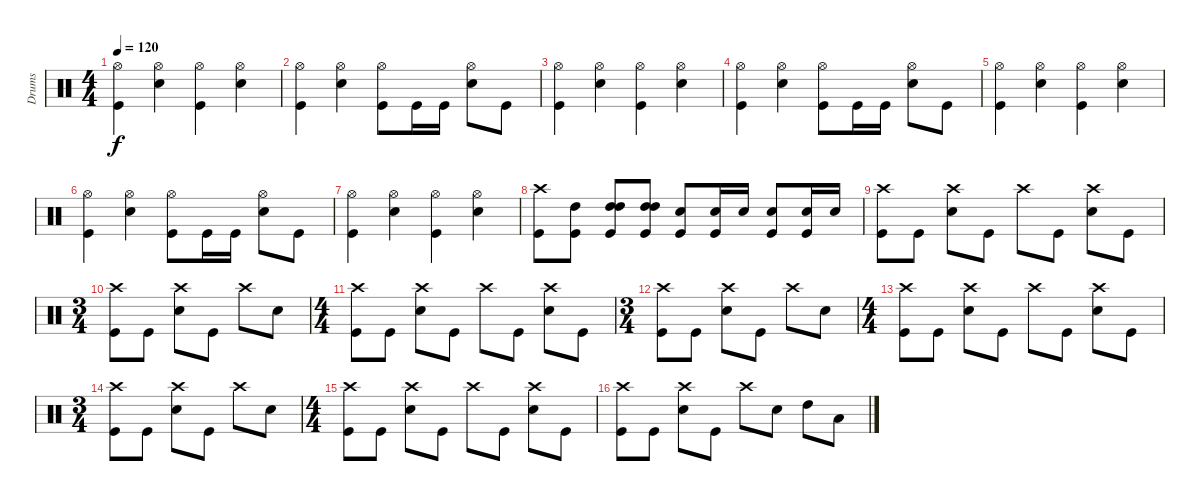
\track ("Drums" "Drums") {instrument percussion}
\staff {score}
\articulation defaults
\ts (4 4)
\tempo 120
\clef neutral
\ks c
("Kick (hit)" "Hi-Hat (open)").4{dy f} ("Snare (hit) 2" "Hi-Hat (open)").4 ("Kick (hit)" "Hi-Hat (open)").4 ("Snare (hit) 2" "Hi-Hat (open)").4 |
("Kick (hit)" "Hi-Hat (open)").4 ("Snare (hit) 2" "Hi-Hat (open)").4 ("Kick (hit)" "Hi-Hat (open)").8 "Kick (hit)".16 "Kick (hit)".16 ("Snare (hit) 2" "Hi-Hat (open)").8 "Kick (hit)".8 |
("Kick (hit)" "Hi-Hat (open)").4 ("Snare (hit) 2" "Hi-Hat (open)").4 ("Kick (hit)" "Hi-Hat (open)").4 ("Snare (hit) 2" "Hi-Hat (open)").4 |
("Kick (hit)" "Hi-Hat (open)").4 ("Snare (hit) 2" "Hi-Hat (open)").4 ("Kick (hit)" "Hi-Hat (open)").8 "Kick (hit)".16 "Kick (hit)".16 ("Snare (hit) 2" "Hi-Hat (open)").8 "Kick (hit)".8 |
("Kick (hit)" "Hi-Hat (open)").4 ("Snare (hit) 2" "Hi-Hat (open)").4 ("Kick (hit)" "Hi-Hat (open)").4 ("Snare (hit) 2" "Hi-Hat (open)").4 |
("Kick (hit)" "Hi-Hat (open)").4 ("Snare (hit) 2" "Hi-Hat (open)").4 ("Kick (hit)" "Hi-Hat (open)").8 "Kick (hit)".16 "Kick (hit)".16 ("Snare (hit) 2" "Hi-Hat (open)").8 "Kick (hit)".8 |
("Kick (hit)" "Hi-Hat (open)").4 ("Snare (hit) 2" "Hi-Hat (open)").4 ("Kick (hit)" "Hi-Hat (open)").4 ("Snare (hit) 2" "Hi-Hat (open)").4 |
("Kick (hit)" "Crash high (hit)").8 ("Kick (hit)" "High Tom (hit)").8 ("Kick (hit)" "High Tom (hit)" "High Tom (hit)").8 ("Kick (hit)" "High Tom (hit)" "High Tom (hit)").8 ("Kick (hit)" "Snare (hit) 2").8 ("Kick (hit)" "Snare (hit) 2").16 "Snare (hit) 2".16 ("Kick (hit)" "Snare (hit) 2").8 ("Kick (hit)" "Snare (hit) 2").16 "Snare (hit) 2".16 |
("Kick (hit)" "Crash high (hit)").8 "Kick (hit)".8 ("Snare (hit) 2" "Crash high (hit)").8 "Kick (hit)".8 "Crash high (hit)".8 "Kick (hit)".8 ("Snare (hit) 2" "Crash high (hit)").8 "Kick (hit)".8 |
\ts (3 4)
("Kick (hit)" "Crash high (hit)").8 "Kick (hit)".8 ("Snare (hit) 2" "Crash high (hit)").8 "Kick (hit)".8 "Crash high (hit)".8 "Snare (hit) 2".8 |
\ts (4 4)
("Kick (hit)" "Crash high (hit)").8 "Kick (hit)".8 ("Snare (hit) 2" "Crash high (hit)").8 "Kick (hit)".8 "Crash high (hit)".8 "Kick (hit)".8 ("Snare (hit) 2" "Crash high (hit)").8 "Kick (hit)".8 |
\ts (3 4)
("Kick (hit)" "Crash high (hit)").8 "Kick (hit)".8 ("Snare (hit) 2" "Crash high (hit)").8 "Kick (hit)".8 "Crash high (hit)".8 "Snare (hit) 2".8 |
\ts (4 4)
("Kick (hit)" "Crash high (hit)").8 "Kick (hit)".8 ("Snare (hit) 2" "Crash high (hit)").8 "Kick (hit)".8 "Crash high (hit)".8 "Kick (hit)".8 ("Snare (hit) 2" "Crash high (hit)").8 "Kick (hit)".8 |
\ts (3 4)
("Kick (hit)" "Crash high (hit)").8 "Kick (hit)".8 ("Snare (hit) 2" "Crash high (hit)").8 "Kick (hit)".8 "Crash high (hit)".8 "Snare (hit) 2".8 |
\ts (4 4)
("Kick (hit)" "Crash high (hit)").8 "Kick (hit)".8 ("Snare (hit) 2" "Crash high (hit)").8 "Kick (hit)".8 "Crash high (hit)".8 "Kick (hit)".8 ("Snare (hit) 2" "Crash high (hit)").8 "Kick (hit)".8 |
("Kick (hit)" "Crash high (hit)").8 "Kick (hit)".8 ("Snare (hit) 2" "Crash high (hit)").8 "Kick (hit)".8 "Crash high (hit)".8 "Snare (hit) 2".8 "High Tom (hit)".8 "Low Tom (hit)".8
